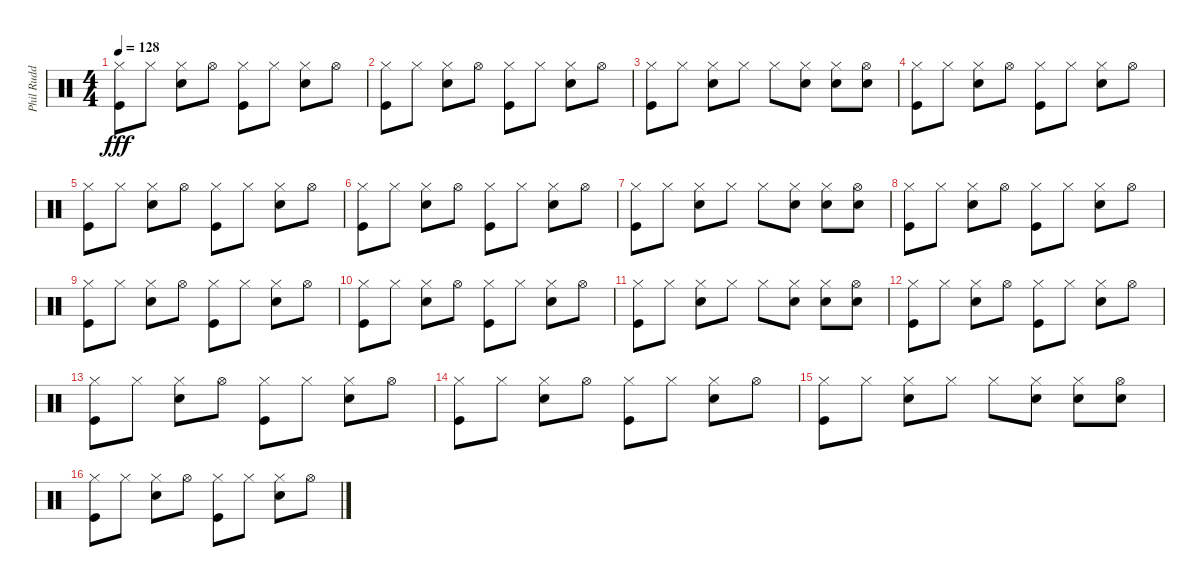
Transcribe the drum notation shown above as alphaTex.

\track ("Phil Rudd" "Phil Rudd") {instrument percussion}
\staff {score}
\articulation defaults
\ts (4 4)
\tempo 128
\clef neutral
\ks c
("Hi-Hat (closed)" "Kick (hit)").8{dy fff} "Hi-Hat (closed)".8 ("Hi-Hat (closed)" "Snare (hit) 2").8 "Hi-Hat (open)".8 ("Hi-Hat (closed)" "Kick (hit)").8 "Hi-Hat (closed)".8 ("Hi-Hat (closed)" "Snare (hit) 2").8 "Hi-Hat (open)".8 |
("Hi-Hat (closed)" "Kick (hit)").8 "Hi-Hat (closed)".8 ("Hi-Hat (closed)" "Snare (hit) 2").8 "Hi-Hat (open)".8 ("Hi-Hat (closed)" "Kick (hit)").8 "Hi-Hat (closed)".8 ("Hi-Hat (closed)" "Snare (hit) 2").8 "Hi-Hat (open)".8 |
("Hi-Hat (closed)" "Kick (hit)").8 "Hi-Hat (closed)".8 ("Hi-Hat (closed)" "Snare (hit) 2").8 "Hi-Hat (closed)".8 "Hi-Hat (closed)".8 ("Hi-Hat (closed)" "Snare (hit) 2").8 ("Hi-Hat (closed)" "Snare (hit) 2").8 ("Hi-Hat (open)" "Snare (hit) 2").8 |
("Hi-Hat (closed)" "Kick (hit)").8 "Hi-Hat (closed)".8 ("Hi-Hat (closed)" "Snare (hit) 2").8 "Hi-Hat (open)".8 ("Hi-Hat (closed)" "Kick (hit)").8 "Hi-Hat (closed)".8 ("Hi-Hat (closed)" "Snare (hit) 2").8 "Hi-Hat (open)".8 |
("Hi-Hat (closed)" "Kick (hit)").8 "Hi-Hat (closed)".8 ("Hi-Hat (closed)" "Snare (hit) 2").8 "Hi-Hat (open)".8 ("Hi-Hat (closed)" "Kick (hit)").8 "Hi-Hat (closed)".8 ("Hi-Hat (closed)" "Snare (hit) 2").8 "Hi-Hat (open)".8 |
("Hi-Hat (closed)" "Kick (hit)").8 "Hi-Hat (closed)".8 ("Hi-Hat (closed)" "Snare (hit) 2").8 "Hi-Hat (open)".8 ("Hi-Hat (closed)" "Kick (hit)").8 "Hi-Hat (closed)".8 ("Hi-Hat (closed)" "Snare (hit) 2").8 "Hi-Hat (open)".8 |
("Hi-Hat (closed)" "Kick (hit)").8 "Hi-Hat (closed)".8 ("Hi-Hat (closed)" "Snare (hit) 2").8 "Hi-Hat (closed)".8 "Hi-Hat (closed)".8 ("Hi-Hat (closed)" "Snare (hit) 2").8 ("Hi-Hat (closed)" "Snare (hit) 2").8 ("Hi-Hat (open)" "Snare (hit) 2").8 |
("Hi-Hat (closed)" "Kick (hit)").8 "Hi-Hat (closed)".8 ("Hi-Hat (closed)" "Snare (hit) 2").8 "Hi-Hat (open)".8 ("Hi-Hat (closed)" "Kick (hit)").8 "Hi-Hat (closed)".8 ("Hi-Hat (closed)" "Snare (hit) 2").8 "Hi-Hat (open)".8 |
("Hi-Hat (closed)" "Kick (hit)").8 "Hi-Hat (closed)".8 ("Hi-Hat (closed)" "Snare (hit) 2").8 "Hi-Hat (open)".8 ("Hi-Hat (closed)" "Kick (hit)").8 "Hi-Hat (closed)".8 ("Hi-Hat (closed)" "Snare (hit) 2").8 "Hi-Hat (open)".8 |
("Hi-Hat (closed)" "Kick (hit)").8 "Hi-Hat (closed)".8 ("Hi-Hat (closed)" "Snare (hit) 2").8 "Hi-Hat (open)".8 ("Hi-Hat (closed)" "Kick (hit)").8 "Hi-Hat (closed)".8 ("Hi-Hat (closed)" "Snare (hit) 2").8 "Hi-Hat (open)".8 |
("Hi-Hat (closed)" "Kick (hit)").8 "Hi-Hat (closed)".8 ("Hi-Hat (closed)" "Snare (hit) 2").8 "Hi-Hat (closed)".8 "Hi-Hat (closed)".8 ("Hi-Hat (closed)" "Snare (hit) 2").8 ("Hi-Hat (closed)" "Snare (hit) 2").8 ("Hi-Hat (open)" "Snare (hit) 2").8 |
("Hi-Hat (closed)" "Kick (hit)").8 "Hi-Hat (closed)".8 ("Hi-Hat (closed)" "Snare (hit) 2").8 "Hi-Hat (open)".8 ("Hi-Hat (closed)" "Kick (hit)").8 "Hi-Hat (closed)".8 ("Hi-Hat (closed)" "Snare (hit) 2").8 "Hi-Hat (open)".8 |
("Hi-Hat (closed)" "Kick (hit)").8 "Hi-Hat (closed)".8 ("Hi-Hat (closed)" "Snare (hit) 2").8 "Hi-Hat (open)".8 ("Hi-Hat (closed)" "Kick (hit)").8 "Hi-Hat (closed)".8 ("Hi-Hat (closed)" "Snare (hit) 2").8 "Hi-Hat (open)".8 |
("Hi-Hat (closed)" "Kick (hit)").8 "Hi-Hat (closed)".8 ("Hi-Hat (closed)" "Snare (hit) 2").8 "Hi-Hat (open)".8 ("Hi-Hat (closed)" "Kick (hit)").8 "Hi-Hat (closed)".8 ("Hi-Hat (closed)" "Snare (hit) 2").8 "Hi-Hat (open)".8 |
("Hi-Hat (closed)" "Kick (hit)").8 "Hi-Hat (closed)".8 ("Hi-Hat (closed)" "Snare (hit) 2").8 "Hi-Hat (closed)".8 "Hi-Hat (closed)".8 ("Hi-Hat (closed)" "Snare (hit) 2").8 ("Hi-Hat (closed)" "Snare (hit) 2").8 ("Hi-Hat (open)" "Snare (hit) 2").8 |
("Hi-Hat (closed)" "Kick (hit)").8 "Hi-Hat (closed)".8 ("Hi-Hat (closed)" "Snare (hit) 2").8 "Hi-Hat (open)".8 ("Hi-Hat (closed)" "Kick (hit)").8 "Hi-Hat (closed)".8 ("Hi-Hat (closed)" "Snare (hit) 2").8 "Hi-Hat (open)".8
